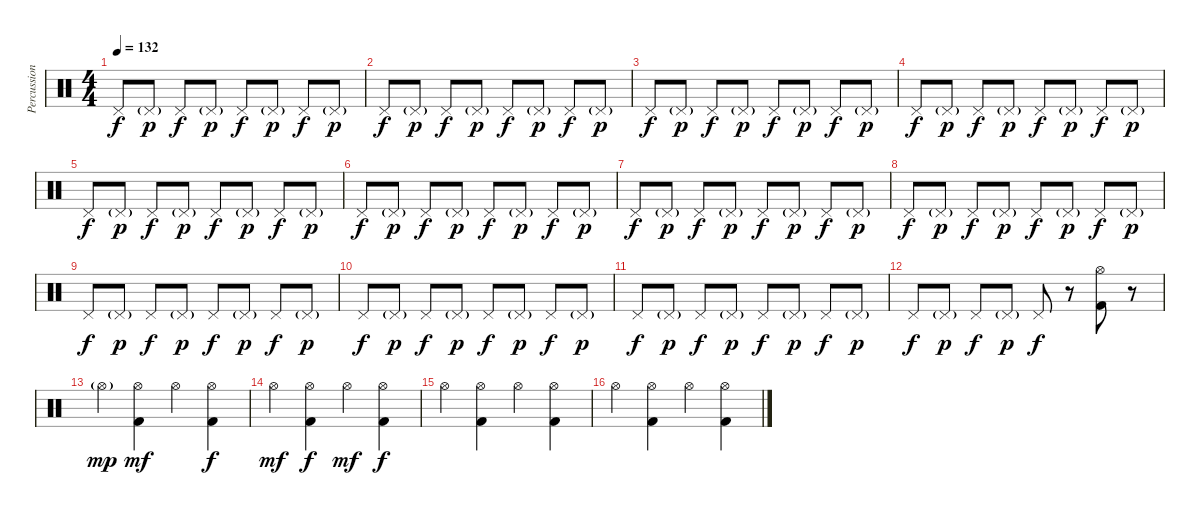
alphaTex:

\track ("Percussion" "Percussion") {instrument percussion}
\staff {score}
\articulation defaults
\ts (4 4)
\tempo 132
\clef neutral
\ks c "Pedal Hi-Hat (hit)".8{dy f} "Pedal Hi-Hat (hit)"{g}.8{dy p} "Pedal Hi-Hat (hit)".8{dy f} "Pedal Hi-Hat (hit)"{g}.8{dy p} "Pedal Hi-Hat (hit)".8{dy f} "Pedal Hi-Hat (hit)"{g}.8{dy p} "Pedal Hi-Hat (hit)".8{dy f} "Pedal Hi-Hat (hit)"{g}.8{dy p}
|
"Pedal Hi-Hat (hit)".8{dy f} "Pedal Hi-Hat (hit)"{g}.8{dy p} "Pedal Hi-Hat (hit)".8{dy f} "Pedal Hi-Hat (hit)"{g}.8{dy p} "Pedal Hi-Hat (hit)".8{dy f} "Pedal Hi-Hat (hit)"{g}.8{dy p} "Pedal Hi-Hat (hit)".8{dy f} "Pedal Hi-Hat (hit)"{g}.8{dy p} |
"Pedal Hi-Hat (hit)".8{dy f} "Pedal Hi-Hat (hit)"{g}.8{dy p} "Pedal Hi-Hat (hit)".8{dy f} "Pedal Hi-Hat (hit)"{g}.8{dy p} "Pedal Hi-Hat (hit)".8{dy f} "Pedal Hi-Hat (hit)"{g}.8{dy p} "Pedal Hi-Hat (hit)".8{dy f} "Pedal Hi-Hat (hit)"{g}.8{dy p} |
"Pedal Hi-Hat (hit)".8{dy f} "Pedal Hi-Hat (hit)"{g}.8{dy p} "Pedal Hi-Hat (hit)".8{dy f} "Pedal Hi-Hat (hit)"{g}.8{dy p} "Pedal Hi-Hat (hit)".8{dy f} "Pedal Hi-Hat (hit)"{g}.8{dy p} "Pedal Hi-Hat (hit)".8{dy f} "Pedal Hi-Hat (hit)"{g}.8{dy p} |
"Pedal Hi-Hat (hit)".8{dy f} "Pedal Hi-Hat (hit)"{g}.8{dy p} "Pedal Hi-Hat (hit)".8{dy f} "Pedal Hi-Hat (hit)"{g}.8{dy p} "Pedal Hi-Hat (hit)".8{dy f} "Pedal Hi-Hat (hit)"{g}.8{dy p} "Pedal Hi-Hat (hit)".8{dy f} "Pedal Hi-Hat (hit)"{g}.8{dy p} |
"Pedal Hi-Hat (hit)".8{dy f} "Pedal Hi-Hat (hit)"{g}.8{dy p} "Pedal Hi-Hat (hit)".8{dy f} "Pedal Hi-Hat (hit)"{g}.8{dy p} "Pedal Hi-Hat (hit)".8{dy f} "Pedal Hi-Hat (hit)"{g}.8{dy p} "Pedal Hi-Hat (hit)".8{dy f} "Pedal Hi-Hat (hit)"{g}.8{dy p} |
"Pedal Hi-Hat (hit)".8{dy f} "Pedal Hi-Hat (hit)"{g}.8{dy p} "Pedal Hi-Hat (hit)".8{dy f} "Pedal Hi-Hat (hit)"{g}.8{dy p} "Pedal Hi-Hat (hit)".8{dy f} "Pedal Hi-Hat (hit)"{g}.8{dy p} "Pedal Hi-Hat (hit)".8{dy f} "Pedal Hi-Hat (hit)"{g}.8{dy p} |
"Pedal Hi-Hat (hit)".8{dy f} "Pedal Hi-Hat (hit)"{g}.8{dy p} "Pedal Hi-Hat (hit)".8{dy f} "Pedal Hi-Hat (hit)"{g}.8{dy p} "Pedal Hi-Hat (hit)".8{dy f} "Pedal Hi-Hat (hit)"{g}.8{dy p} "Pedal Hi-Hat (hit)".8{dy f} "Pedal Hi-Hat (hit)"{g}.8{dy p} |
"Pedal Hi-Hat (hit)".8{dy f} "Pedal Hi-Hat (hit)"{g}.8{dy p} "Pedal Hi-Hat (hit)".8{dy f} "Pedal Hi-Hat (hit)"{g}.8{dy p} "Pedal Hi-Hat (hit)".8{dy f} "Pedal Hi-Hat (hit)"{g}.8{dy p} "Pedal Hi-Hat (hit)".8{dy f} "Pedal Hi-Hat (hit)"{g}.8{dy p} |
"Pedal Hi-Hat (hit)".8{dy f} "Pedal Hi-Hat (hit)"{g}.8{dy p} "Pedal Hi-Hat (hit)".8{dy f} "Pedal Hi-Hat (hit)"{g}.8{dy p} "Pedal Hi-Hat (hit)".8{dy f} "Pedal Hi-Hat (hit)"{g}.8{dy p} "Pedal Hi-Hat (hit)".8{dy f} "Pedal Hi-Hat (hit)"{g}.8{dy p} |
"Pedal Hi-Hat (hit)".8{dy f} "Pedal Hi-Hat (hit)"{g}.8{dy p} "Pedal Hi-Hat (hit)".8{dy f} "Pedal Hi-Hat (hit)"{g}.8{dy p} "Pedal Hi-Hat (hit)".8{dy f} "Pedal Hi-Hat (hit)"{g}.8{dy p} "Pedal Hi-Hat (hit)".8{dy f} "Pedal Hi-Hat (hit)"{g}.8{dy p} |
"Pedal Hi-Hat (hit)".8{dy f} "Pedal Hi-Hat (hit)"{g}.8{dy p} "Pedal Hi-Hat (hit)".8{dy f} "Pedal Hi-Hat (hit)"{g}.8{dy p} "Pedal Hi-Hat (hit)".8{dy f} r.8 ("Hi-Hat (open)" "Kick (hit) 2").8 r.8 |
"Hi-Hat (open)"{g}.4{dy mp} ("Hi-Hat (open)" "Kick (hit) 2").4{dy mf} "Hi-Hat (open)".4 ("Hi-Hat (open)" "Kick (hit) 2").4{dy f} |
"Hi-Hat (open)".4{dy mf} ("Hi-Hat (open)" "Kick (hit) 2").4{dy f} "Hi-Hat (open)".4{dy mf} ("Hi-Hat (open)" "Kick (hit) 2").4{dy f} |
"Hi-Hat (open)".4 ("Hi-Hat (open)" "Kick (hit) 2").4 "Hi-Hat (open)".4 ("Hi-Hat (open)" "Kick (hit) 2").4 |
"Hi-Hat (open)".4 ("Hi-Hat (open)" "Kick (hit) 2").4 "Hi-Hat (open)".4 ("Hi-Hat (open)" "Kick (hit) 2").4
